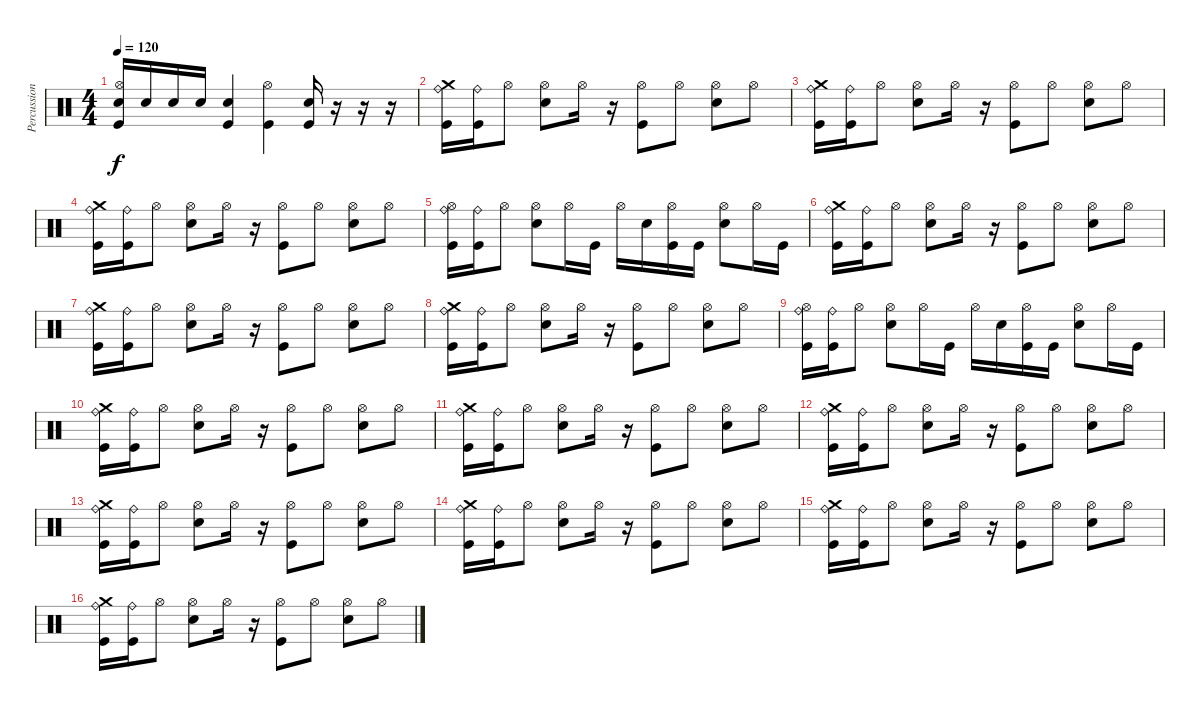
\track ("Percussion" "Percussion") {instrument percussion}
\staff {score}
\articulation defaults
\ts (4 4)
\tempo 120
\clef neutral
\ks c
("Electric Snare (hit)" "Hi-Hat (open)" "Kick (hit)").16{dy f} "Electric Snare (hit)".16 "Electric Snare (hit)".16 "Electric Snare (hit)".16 ("Electric Snare (hit)" "Kick (hit)").4 ("Hi-Hat (open)" "Kick (hit)").4 ("Electric Snare (hit)" "Kick (hit)").16 r.16 r.16 r.16 |
("Kick (hit)" "Ride (bell)" "Crash medium (hit)").16 ("Kick (hit)" "Ride (bell)").16 "Hi-Hat (open)".8 ("Hi-Hat (open)" "Electric Snare (hit)").8 "Hi-Hat (open)".16 r.16 ("Kick (hit)" "Hi-Hat (open)").8 "Hi-Hat (open)".8 ("Hi-Hat (open)" "Electric Snare (hit)").8 "Hi-Hat (open)".8 |
("Kick (hit)" "Ride (bell)" "Crash medium (hit)").16 ("Kick (hit)" "Ride (bell)").16 "Hi-Hat (open)".8 ("Hi-Hat (open)" "Electric Snare (hit)").8 "Hi-Hat (open)".16 r.16 ("Kick (hit)" "Hi-Hat (open)").8 "Hi-Hat (open)".8 ("Hi-Hat (open)" "Electric Snare (hit)").8 "Hi-Hat (open)".8 |
("Kick (hit)" "Ride (bell)" "Crash medium (hit)").16 ("Kick (hit)" "Ride (bell)").16 "Hi-Hat (open)".8 ("Hi-Hat (open)" "Electric Snare (hit)").8 "Hi-Hat (open)".16 r.16 ("Kick (hit)" "Hi-Hat (open)").8 "Hi-Hat (open)".8 ("Hi-Hat (open)" "Electric Snare (hit)").8 "Hi-Hat (open)".8 |
("Kick (hit)" "Ride (bell)" "Hi-Hat (open)").16 ("Kick (hit)" "Ride (bell)").16 "Hi-Hat (open)".8 ("Hi-Hat (open)" "Electric Snare (hit)").8 "Hi-Hat (open)".16 "Kick (hit)".16 "Hi-Hat (open)".16 "Electric Snare (hit)".16 ("Kick (hit)" "Hi-Hat (open)").16 "Kick (hit)".16 ("Hi-Hat (open)" "Electric Snare (hit)").8 "Hi-Hat (open)".16 "Kick (hit)".16 |
("Kick (hit)" "Ride (bell)" "Crash medium (hit)").16 ("Kick (hit)" "Ride (bell)").16 "Hi-Hat (open)".8 ("Hi-Hat (open)" "Electric Snare (hit)").8 "Hi-Hat (open)".16 r.16 ("Kick (hit)" "Hi-Hat (open)").8 "Hi-Hat (open)".8 ("Hi-Hat (open)" "Electric Snare (hit)").8 "Hi-Hat (open)".8 |
("Kick (hit)" "Ride (bell)" "Crash medium (hit)").16 ("Kick (hit)" "Ride (bell)").16 "Hi-Hat (open)".8 ("Hi-Hat (open)" "Electric Snare (hit)").8 "Hi-Hat (open)".16 r.16 ("Kick (hit)" "Hi-Hat (open)").8 "Hi-Hat (open)".8 ("Hi-Hat (open)" "Electric Snare (hit)").8 "Hi-Hat (open)".8 |
("Kick (hit)" "Ride (bell)" "Crash medium (hit)").16 ("Kick (hit)" "Ride (bell)").16 "Hi-Hat (open)".8 ("Hi-Hat (open)" "Electric Snare (hit)").8 "Hi-Hat (open)".16 r.16 ("Kick (hit)" "Hi-Hat (open)").8 "Hi-Hat (open)".8 ("Hi-Hat (open)" "Electric Snare (hit)").8 "Hi-Hat (open)".8 |
("Kick (hit)" "Ride (bell)" "Hi-Hat (open)").16 ("Kick (hit)" "Ride (bell)").16 "Hi-Hat (open)".8 ("Hi-Hat (open)" "Electric Snare (hit)").8 "Hi-Hat (open)".16 "Kick (hit)".16 "Hi-Hat (open)".16 "Electric Snare (hit)".16 ("Kick (hit)" "Hi-Hat (open)").16 "Kick (hit)".16 ("Hi-Hat (open)" "Electric Snare (hit)").8 "Hi-Hat (open)".16 "Kick (hit)".16 |
("Kick (hit)" "Ride (bell)" "Crash medium (hit)").16 ("Kick (hit)" "Ride (bell)").16 "Hi-Hat (open)".8 ("Hi-Hat (open)" "Electric Snare (hit)").8 "Hi-Hat (open)".16 r.16 ("Kick (hit)" "Hi-Hat (open)").8 "Hi-Hat (open)".8 ("Hi-Hat (open)" "Electric Snare (hit)").8 "Hi-Hat (open)".8 |
("Kick (hit)" "Ride (bell)" "Crash medium (hit)").16 ("Kick (hit)" "Ride (bell)").16 "Hi-Hat (open)".8 ("Hi-Hat (open)" "Electric Snare (hit)").8 "Hi-Hat (open)".16 r.16 ("Kick (hit)" "Hi-Hat (open)").8 "Hi-Hat (open)".8 ("Hi-Hat (open)" "Electric Snare (hit)").8 "Hi-Hat (open)".8 |
("Kick (hit)" "Ride (bell)" "Crash medium (hit)").16 ("Kick (hit)" "Ride (bell)").16 "Hi-Hat (open)".8 ("Hi-Hat (open)" "Electric Snare (hit)").8 "Hi-Hat (open)".16 r.16 ("Kick (hit)" "Hi-Hat (open)").8 "Hi-Hat (open)".8 ("Hi-Hat (open)" "Electric Snare (hit)").8 "Hi-Hat (open)".8 |
("Kick (hit)" "Ride (bell)" "Crash medium (hit)").16 ("Kick (hit)" "Ride (bell)").16 "Hi-Hat (open)".8 ("Hi-Hat (open)" "Electric Snare (hit)").8 "Hi-Hat (open)".16 r.16 ("Kick (hit)" "Hi-Hat (open)").8 "Hi-Hat (open)".8 ("Hi-Hat (open)" "Electric Snare (hit)").8 "Hi-Hat (open)".8 |
("Kick (hit)" "Ride (bell)" "Crash medium (hit)").16 ("Kick (hit)" "Ride (bell)").16 "Hi-Hat (open)".8 ("Hi-Hat (open)" "Electric Snare (hit)").8 "Hi-Hat (open)".16 r.16 ("Kick (hit)" "Hi-Hat (open)").8 "Hi-Hat (open)".8 ("Hi-Hat (open)" "Electric Snare (hit)").8 "Hi-Hat (open)".8 |
("Kick (hit)" "Ride (bell)" "Crash medium (hit)").16 ("Kick (hit)" "Ride (bell)").16 "Hi-Hat (open)".8 ("Hi-Hat (open)" "Electric Snare (hit)").8 "Hi-Hat (open)".16 r.16 ("Kick (hit)" "Hi-Hat (open)").8 "Hi-Hat (open)".8 ("Hi-Hat (open)" "Electric Snare (hit)").8 "Hi-Hat (open)".8 |
("Kick (hit)" "Ride (bell)" "Crash medium (hit)").16 ("Kick (hit)" "Ride (bell)").16 "Hi-Hat (open)".8 ("Hi-Hat (open)" "Electric Snare (hit)").8 "Hi-Hat (open)".16 r.16 ("Kick (hit)" "Hi-Hat (open)").8 "Hi-Hat (open)".8 ("Hi-Hat (open)" "Electric Snare (hit)").8 "Hi-Hat (open)".8
